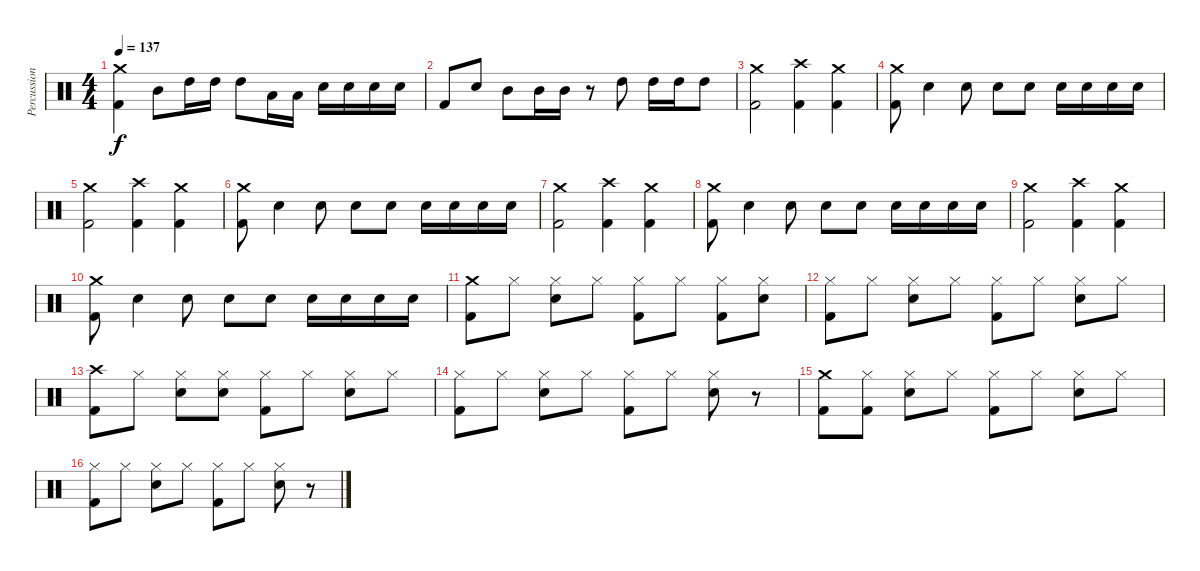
\track ("Percussions" "Percussion") {instrument percussion}
\staff {score}
\articulation defaults
\ts (4 4)
\tempo 137
\clef neutral
\ks c
("Crash medium (hit)" "Kick (hit) 2").4{dy f} "Mid Tom (hit)".8 "High Tom (hit)".16 "High Tom (hit)".16 "High Tom (hit)".8 "Low Tom (hit)".16 "Low Tom (hit)".16 "Electric Snare (hit)".16 "Electric Snare (hit)".16 "Electric Snare (hit)".16 "Electric Snare (hit)".16 |
"Kick (hit) 2".8 "Electric Snare (hit)".8 "Mid Tom (hit)".8 "Mid Tom (hit)".16 "Mid Tom (hit)".16 r.8 "High Tom (hit)".8 "High Tom (hit)".16 "High Tom (hit)".16 "High Tom (hit)".8 |
("Crash medium (hit)" "Kick (hit) 2").2 ("Crash high (hit)" "Kick (hit) 2").4 ("Crash medium (hit)" "Kick (hit) 2").4 |
("Crash medium (hit)" "Kick (hit) 2").8 "Electric Snare (hit)".4 "Electric Snare (hit)".8 "Electric Snare (hit)".8 "Electric Snare (hit)".8 "Electric Snare (hit)".16 "Electric Snare (hit)".16 "Electric Snare (hit)".16 "Electric Snare (hit)".16 |
("Crash medium (hit)" "Kick (hit) 2").2 ("Crash high (hit)" "Kick (hit) 2").4 ("Crash medium (hit)" "Kick (hit) 2").4 |
("Crash medium (hit)" "Kick (hit) 2").8 "Electric Snare (hit)".4 "Electric Snare (hit)".8 "Electric Snare (hit)".8 "Electric Snare (hit)".8 "Electric Snare (hit)".16 "Electric Snare (hit)".16 "Electric Snare (hit)".16 "Electric Snare (hit)".16 |
("Crash medium (hit)" "Kick (hit) 2").2 ("Crash high (hit)" "Kick (hit) 2").4 ("Crash medium (hit)" "Kick (hit) 2").4 |
("Crash medium (hit)" "Kick (hit) 2").8 "Electric Snare (hit)".4 "Electric Snare (hit)".8 "Electric Snare (hit)".8 "Electric Snare (hit)".8 "Electric Snare (hit)".16 "Electric Snare (hit)".16 "Electric Snare (hit)".16 "Electric Snare (hit)".16 |
("Crash medium (hit)" "Kick (hit) 2").2 ("Crash high (hit)" "Kick (hit) 2").4 ("Crash medium (hit)" "Kick (hit) 2").4 |
("Crash medium (hit)" "Kick (hit) 2").8 "Electric Snare (hit)".4 "Electric Snare (hit)".8 "Electric Snare (hit)".8 "Electric Snare (hit)".8 "Electric Snare (hit)".16 "Electric Snare (hit)".16 "Electric Snare (hit)".16 "Electric Snare (hit)".16 |
("Crash medium (hit)" "Kick (hit) 2").8 "Hi-Hat (closed)".8 ("Hi-Hat (closed)" "Electric Snare (hit)").8 "Hi-Hat (closed)".8 ("Hi-Hat (closed)" "Kick (hit) 2").8 "Hi-Hat (closed)".8 ("Hi-Hat (closed)" "Kick (hit) 2").8 ("Hi-Hat (closed)" "Electric Snare (hit)").8 |
("Hi-Hat (closed)" "Kick (hit) 2").8 "Hi-Hat (closed)".8 ("Hi-Hat (closed)" "Electric Snare (hit)").8 "Hi-Hat (closed)".8 ("Hi-Hat (closed)" "Kick (hit) 2").8 "Hi-Hat (closed)".8 ("Hi-Hat (closed)" "Electric Snare (hit)").8 "Hi-Hat (closed)".8 |
("Crash high (hit)" "Kick (hit) 2").8 "Hi-Hat (closed)".8 ("Hi-Hat (closed)" "Electric Snare (hit)").8 ("Hi-Hat (closed)" "Electric Snare (hit)").8 ("Hi-Hat (closed)" "Kick (hit) 2").8 "Hi-Hat (closed)".8 ("Hi-Hat (closed)" "Electric Snare (hit)").8 "Hi-Hat (closed)".8 |
("Hi-Hat (closed)" "Kick (hit) 2").8 "Hi-Hat (closed)".8 ("Hi-Hat (closed)" "Electric Snare (hit)").8 "Hi-Hat (closed)".8 ("Hi-Hat (closed)" "Kick (hit) 2").8 "Hi-Hat (closed)".8 ("Hi-Hat (closed)" "Electric Snare (hit)").8 r.8 |
("Crash medium (hit)" "Kick (hit) 2").8 ("Hi-Hat (closed)" "Kick (hit) 2").8 ("Hi-Hat (closed)" "Electric Snare (hit)").8 "Hi-Hat (closed)".8 ("Hi-Hat (closed)" "Kick (hit) 2").8 "Hi-Hat (closed)".8 ("Hi-Hat (closed)" "Electric Snare (hit)").8 "Hi-Hat (closed)".8 |
("Hi-Hat (closed)" "Kick (hit) 2").8 "Hi-Hat (closed)".8 ("Hi-Hat (closed)" "Electric Snare (hit)").8 "Hi-Hat (closed)".8 ("Hi-Hat (closed)" "Kick (hit) 2").8 "Hi-Hat (closed)".8 ("Hi-Hat (closed)" "Electric Snare (hit)").8 r.8
